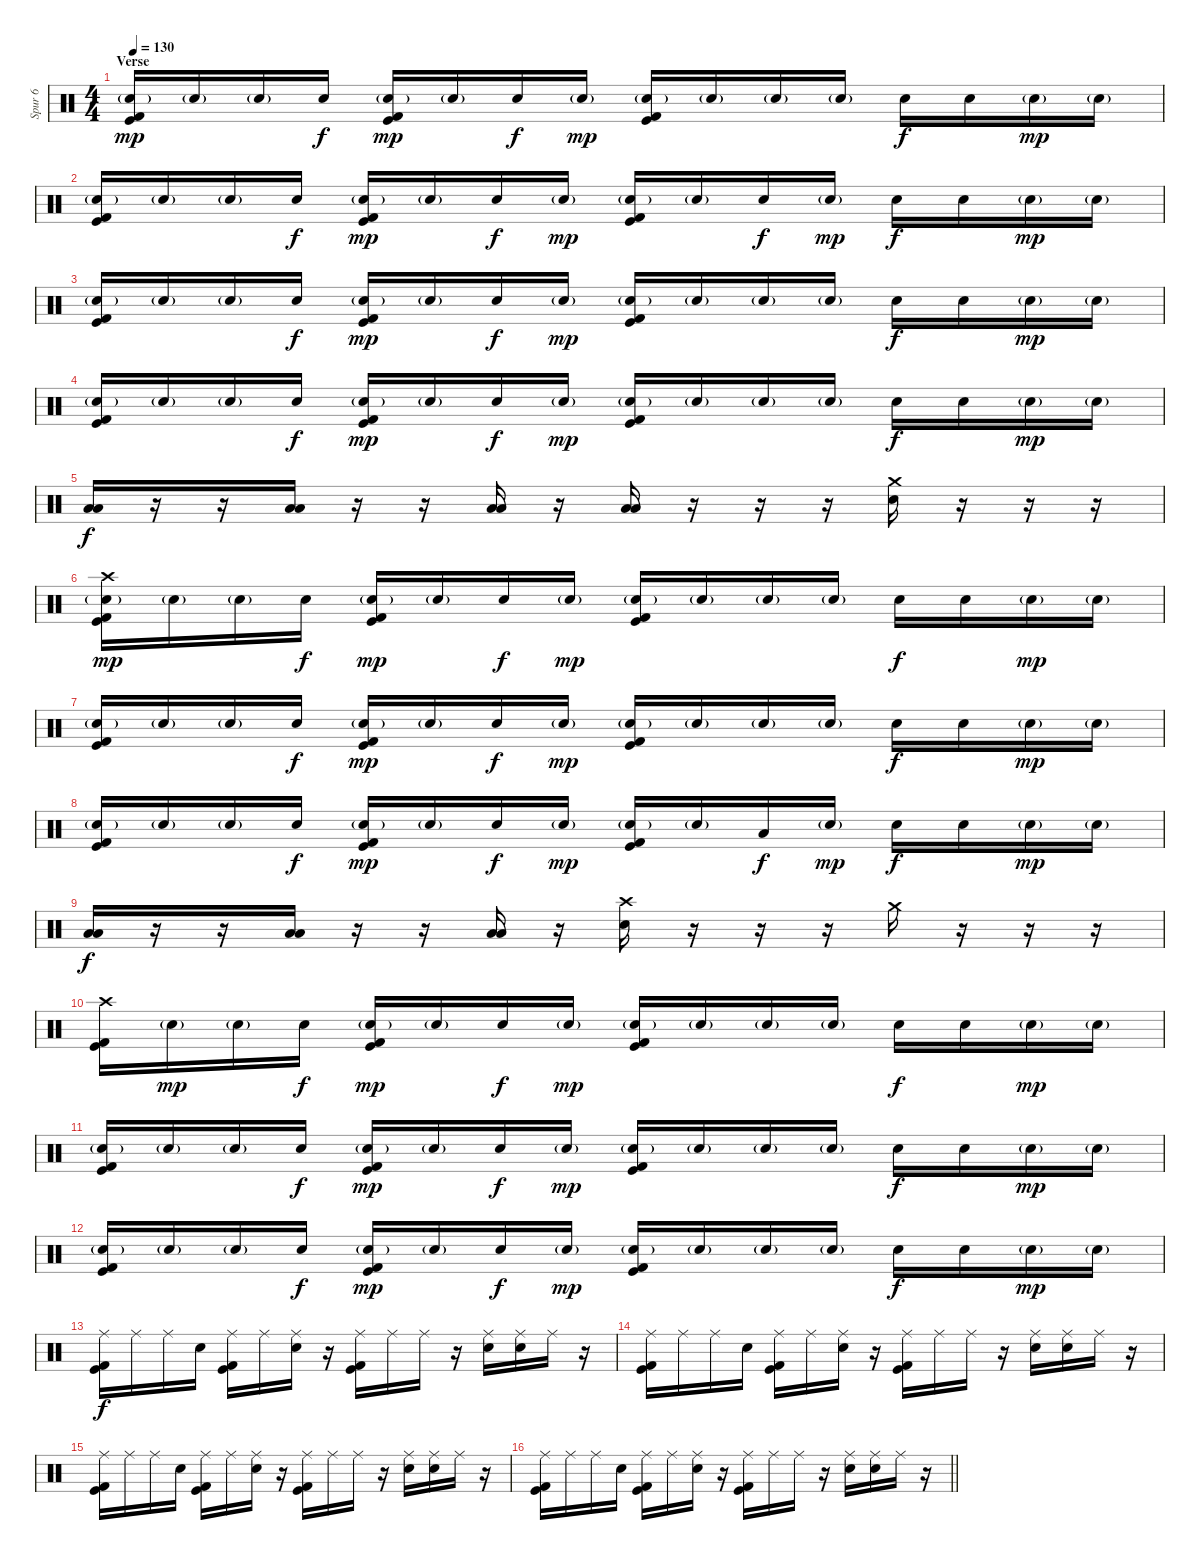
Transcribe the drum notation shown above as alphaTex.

\track ("Spur 6" "Spur 6") {instrument percussion}
\staff {score}
\articulation defaults
\ts (4 4)
\section ("" "Verse")
\tempo 130
\clef neutral
\ks c
("Electric Snare (hit)"{g} "Kick (hit)" "Kick (hit) 2").16{dy mp} "Electric Snare (hit)"{g}.16 "Electric Snare (hit)"{g}.16 "Electric Snare (hit)".16{dy f} ("Electric Snare (hit)"{g} "Kick (hit)" "Kick (hit) 2").16{dy mp} "Electric Snare (hit)"{g}.16 "Electric Snare (hit)".16{dy f} "Electric Snare (hit)"{g}.16{dy mp} ("Electric Snare (hit)"{g} "Kick (hit)" "Kick (hit) 2").16 "Electric Snare (hit)"{g}.16 "Electric Snare (hit)"{g}.16 "Electric Snare (hit)"{g}.16 "Electric Snare (hit)".16{dy f} "Electric Snare (hit)".16 "Electric Snare (hit)"{g}.16{dy mp} "Electric Snare (hit)"{g}.16 |
("Electric Snare (hit)"{g} "Kick (hit)" "Kick (hit) 2").16 "Electric Snare (hit)"{g}.16 "Electric Snare (hit)"{g}.16 "Electric Snare (hit)".16{dy f} ("Electric Snare (hit)"{g} "Kick (hit)" "Kick (hit) 2").16{dy mp} "Electric Snare (hit)"{g}.16 "Electric Snare (hit)".16{dy f} "Electric Snare (hit)"{g}.16{dy mp} ("Electric Snare (hit)"{g} "Kick (hit)" "Kick (hit) 2").16 "Electric Snare (hit)"{g}.16 "Electric Snare (hit)".16{dy f} "Electric Snare (hit)"{g}.16{dy mp} "Electric Snare (hit)".16{dy f} "Electric Snare (hit)".16 "Electric Snare (hit)"{g}.16{dy mp} "Electric Snare (hit)"{g}.16 |
("Electric Snare (hit)"{g} "Kick (hit)" "Kick (hit) 2").16 "Electric Snare (hit)"{g}.16 "Electric Snare (hit)"{g}.16 "Electric Snare (hit)".16{dy f} ("Electric Snare (hit)"{g} "Kick (hit)" "Kick (hit) 2").16{dy mp} "Electric Snare (hit)"{g}.16 "Electric Snare (hit)".16{dy f} "Electric Snare (hit)"{g}.16{dy mp} ("Electric Snare (hit)"{g} "Kick (hit)" "Kick (hit) 2").16 "Electric Snare (hit)"{g}.16 "Electric Snare (hit)"{g}.16 "Electric Snare (hit)"{g}.16 "Electric Snare (hit)".16{dy f} "Electric Snare (hit)".16 "Electric Snare (hit)"{g}.16{dy mp} "Electric Snare (hit)"{g}.16 |
("Electric Snare (hit)"{g} "Kick (hit)" "Kick (hit) 2").16 "Electric Snare (hit)"{g}.16 "Electric Snare (hit)"{g}.16 "Electric Snare (hit)".16{dy f} ("Electric Snare (hit)"{g} "Kick (hit)" "Kick (hit) 2").16{dy mp} "Electric Snare (hit)"{g}.16 "Electric Snare (hit)".16{dy f} "Electric Snare (hit)"{g}.16{dy mp} ("Electric Snare (hit)"{g} "Kick (hit)" "Kick (hit) 2").16 "Electric Snare (hit)"{g}.16 "Electric Snare (hit)"{g}.16 "Electric Snare (hit)"{g}.16 "Electric Snare (hit)".16{dy f} "Electric Snare (hit)".16 "Electric Snare (hit)"{g}.16{dy mp} "Electric Snare (hit)"{g}.16 |
("Low Tom (hit)" "Low Floor Tom (hit)").16{dy f} r.16 r.16 ("Low Tom (hit)" "Low Floor Tom (hit)").16 r.16 r.16 ("Low Tom (hit)" "Low Floor Tom (hit)").16 r.16 ("Low Tom (hit)" "Low Floor Tom (hit)").16 r.16 r.16 r.16 ("Electric Snare (hit)" "Crash medium (hit)").16 r.16 r.16 r.16 |
("Crash high (hit)" "Electric Snare (hit)"{g} "Kick (hit)" "Kick (hit) 2").16{dy mp} "Electric Snare (hit)"{g}.16 "Electric Snare (hit)"{g}.16 "Electric Snare (hit)".16{dy f} ("Electric Snare (hit)"{g} "Kick (hit)" "Kick (hit) 2").16{dy mp} "Electric Snare (hit)"{g}.16 "Electric Snare (hit)".16{dy f} "Electric Snare (hit)"{g}.16{dy mp} ("Electric Snare (hit)"{g} "Kick (hit)" "Kick (hit) 2").16 "Electric Snare (hit)"{g}.16 "Electric Snare (hit)"{g}.16 "Electric Snare (hit)"{g}.16 "Electric Snare (hit)".16{dy f} "Electric Snare (hit)".16 "Electric Snare (hit)"{g}.16{dy mp} "Electric Snare (hit)"{g}.16 |
("Electric Snare (hit)"{g} "Kick (hit)" "Kick (hit) 2").16 "Electric Snare (hit)"{g}.16 "Electric Snare (hit)"{g}.16 "Electric Snare (hit)".16{dy f} ("Electric Snare (hit)"{g} "Kick (hit)" "Kick (hit) 2").16{dy mp} "Electric Snare (hit)"{g}.16 "Electric Snare (hit)".16{dy f} "Electric Snare (hit)"{g}.16{dy mp} ("Electric Snare (hit)"{g} "Kick (hit)" "Kick (hit) 2").16 "Electric Snare (hit)"{g}.16 "Electric Snare (hit)"{g}.16 "Electric Snare (hit)"{g}.16 "Electric Snare (hit)".16{dy f} "Electric Snare (hit)".16 "Electric Snare (hit)"{g}.16{dy mp} "Electric Snare (hit)"{g}.16 |
("Electric Snare (hit)"{g} "Kick (hit)" "Kick (hit) 2").16 "Electric Snare (hit)"{g}.16 "Electric Snare (hit)"{g}.16 "Electric Snare (hit)".16{dy f} ("Electric Snare (hit)"{g} "Kick (hit)" "Kick (hit) 2").16{dy mp} "Electric Snare (hit)"{g}.16 "Electric Snare (hit)".16{dy f} "Electric Snare (hit)"{g}.16{dy mp} ("Electric Snare (hit)"{g} "Kick (hit)" "Kick (hit) 2").16 "Electric Snare (hit)"{g}.16 "Low Tom (hit)".16{dy f} "Electric Snare (hit)"{g}.16{dy mp} "Electric Snare (hit)".16{dy f} "Electric Snare (hit)".16 "Electric Snare (hit)"{g}.16{dy mp} "Electric Snare (hit)"{g}.16 |
("Low Tom (hit)" "Low Floor Tom (hit)").16{dy f} r.16 r.16 ("Low Tom (hit)" "Low Floor Tom (hit)").16 r.16 r.16 ("Low Tom (hit)" "Low Floor Tom (hit)").16 r.16 ("Crash high (hit)" "Electric Snare (hit)").16 r.16 r.16 r.16 "Crash medium (hit)".16 r.16 r.16 r.16 |
("Crash high (hit)" "Kick (hit)" "Kick (hit) 2").16 "Electric Snare (hit)"{g}.16{dy mp} "Electric Snare (hit)"{g}.16 "Electric Snare (hit)".16{dy f} ("Electric Snare (hit)"{g} "Kick (hit)" "Kick (hit) 2").16{dy mp} "Electric Snare (hit)"{g}.16 "Electric Snare (hit)".16{dy f} "Electric Snare (hit)"{g}.16{dy mp} ("Electric Snare (hit)"{g} "Kick (hit)" "Kick (hit) 2").16 "Electric Snare (hit)"{g}.16 "Electric Snare (hit)"{g}.16 "Electric Snare (hit)"{g}.16 "Electric Snare (hit)".16{dy f} "Electric Snare (hit)".16 "Electric Snare (hit)"{g}.16{dy mp} "Electric Snare (hit)"{g}.16 |
("Electric Snare (hit)"{g} "Kick (hit)" "Kick (hit) 2").16 "Electric Snare (hit)"{g}.16 "Electric Snare (hit)"{g}.16 "Electric Snare (hit)".16{dy f} ("Electric Snare (hit)"{g} "Kick (hit)" "Kick (hit) 2").16{dy mp} "Electric Snare (hit)"{g}.16 "Electric Snare (hit)".16{dy f} "Electric Snare (hit)"{g}.16{dy mp} ("Electric Snare (hit)"{g} "Kick (hit)" "Kick (hit) 2").16 "Electric Snare (hit)"{g}.16 "Electric Snare (hit)"{g}.16 "Electric Snare (hit)"{g}.16 "Electric Snare (hit)".16{dy f} "Electric Snare (hit)".16 "Electric Snare (hit)"{g}.16{dy mp} "Electric Snare (hit)"{g}.16 |
("Electric Snare (hit)"{g} "Kick (hit)" "Kick (hit) 2").16 "Electric Snare (hit)"{g}.16 "Electric Snare (hit)"{g}.16 "Electric Snare (hit)".16{dy f} ("Electric Snare (hit)"{g} "Kick (hit)" "Kick (hit) 2").16{dy mp} "Electric Snare (hit)"{g}.16 "Electric Snare (hit)".16{dy f} "Electric Snare (hit)"{g}.16{dy mp} ("Electric Snare (hit)"{g} "Kick (hit)" "Kick (hit) 2").16 "Electric Snare (hit)"{g}.16 "Electric Snare (hit)"{g}.16 "Electric Snare (hit)"{g}.16 "Electric Snare (hit)".16{dy f} "Electric Snare (hit)".16 "Electric Snare (hit)"{g}.16{dy mp} "Electric Snare (hit)"{g}.16 |
("Ride (middle)" "Kick (hit)" "Kick (hit) 2").16{dy f} "Ride (middle)".16 "Ride (middle)".16 "Electric Snare (hit)".16 ("Ride (middle)" "Kick (hit)" "Kick (hit) 2").16 "Ride (middle)".16 ("Ride (middle)" "Electric Snare (hit)").16 r.16 ("Ride (middle)" "Kick (hit)" "Kick (hit) 2").16 "Ride (middle)".16 "Ride (middle)".16 r.16 ("Ride (middle)" "Electric Snare (hit)").16 ("Ride (middle)" "Electric Snare (hit)").16 "Ride (middle)".16 r.16 |
("Ride (middle)" "Kick (hit)" "Kick (hit) 2").16 "Ride (middle)".16 "Ride (middle)".16 "Electric Snare (hit)".16 ("Ride (middle)" "Kick (hit)" "Kick (hit) 2").16 "Ride (middle)".16 ("Ride (middle)" "Electric Snare (hit)").16 r.16 ("Ride (middle)" "Kick (hit)" "Kick (hit) 2").16 "Ride (middle)".16 "Ride (middle)".16 r.16 ("Ride (middle)" "Electric Snare (hit)").16 ("Ride (middle)" "Electric Snare (hit)").16 "Ride (middle)".16 r.16 |
("Ride (middle)" "Kick (hit)" "Kick (hit) 2").16 "Ride (middle)".16 "Ride (middle)".16 "Electric Snare (hit)".16 ("Ride (middle)" "Kick (hit)" "Kick (hit) 2").16 "Ride (middle)".16 ("Ride (middle)" "Electric Snare (hit)").16 r.16 ("Ride (middle)" "Kick (hit)" "Kick (hit) 2").16 "Ride (middle)".16 "Ride (middle)".16 r.16 ("Ride (middle)" "Electric Snare (hit)").16 ("Ride (middle)" "Electric Snare (hit)").16 "Ride (middle)".16 r.16 |
\barLineRight lightlight
("Ride (middle)" "Kick (hit)" "Kick (hit) 2").16 "Ride (middle)".16 "Ride (middle)".16 "Electric Snare (hit)".16 ("Ride (middle)" "Kick (hit)" "Kick (hit) 2").16 "Ride (middle)".16 ("Ride (middle)" "Electric Snare (hit)").16 r.16 ("Ride (middle)" "Kick (hit)" "Kick (hit) 2").16 "Ride (middle)".16 "Ride (middle)".16 r.16 ("Ride (middle)" "Electric Snare (hit)").16 ("Ride (middle)" "Electric Snare (hit)").16 "Ride (middle)".16 r.16
